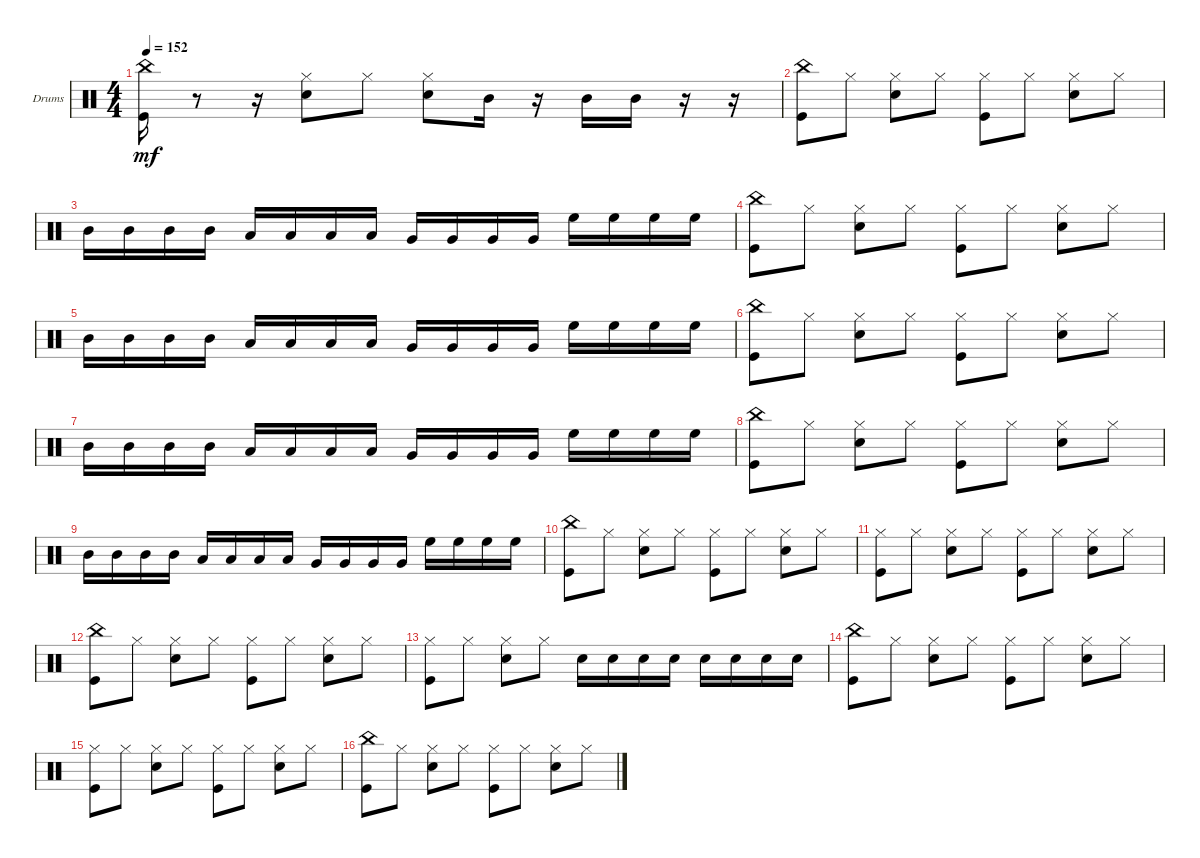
\defaultSystemsLayout 4
\bracketExtendMode groupsimilarinstruments
\firstSystemTrackNameOrientation horizontal
\otherSystemsTrackNameOrientation horizontal
\track ("Drumkit" "Drums") {instrument percussion}
\staff {score}
\articulation defaults
\ts (4 4)
\tempo 152
\clef neutral
\ks c
("Kick (hit)" "China (hit)").16{dy mf} r.8 r.16 ("Snare (hit) 2" "Hi-Hat (closed)").8 "Hi-Hat (closed)".8 ("Hi-Hat (closed)" "Snare (hit) 2").8 "Mid Tom (hit)".16 r.16 "Mid Tom (hit)".16 "Mid Tom (hit)".16 r.16 r.16 |
("China (hit)" "Kick (hit)").8 "Hi-Hat (closed)".8 ("Hi-Hat (closed)" "Snare (hit) 2").8 "Hi-Hat (closed)".8 ("Hi-Hat (closed)" "Kick (hit)").8 "Hi-Hat (closed)".8 ("Hi-Hat (closed)" "Snare (hit) 2").8 "Hi-Hat (closed)".8 |
"Mid Tom (hit)".16 "Mid Tom (hit)".16 "Mid Tom (hit)".16 "Mid Tom (hit)".16 "Low Tom (hit)".16 "Low Tom (hit)".16 "Low Tom (hit)".16 "Low Tom (hit)".16 "Very Low Tom (hit)".16 "Very Low Tom (hit)".16 "Very Low Tom (hit)".16 "Very Low Tom (hit)".16 "High Floor Tom (hit)".16 "High Floor Tom (hit)".16 "High Floor Tom (hit)".16 "High Floor Tom (hit)".16 |
("China (hit)" "Kick (hit)").8 "Hi-Hat (closed)".8 ("Hi-Hat (closed)" "Snare (hit) 2").8 "Hi-Hat (closed)".8 ("Hi-Hat (closed)" "Kick (hit)").8 "Hi-Hat (closed)".8 ("Hi-Hat (closed)" "Snare (hit) 2").8 "Hi-Hat (closed)".8 |
"Mid Tom (hit)".16 "Mid Tom (hit)".16 "Mid Tom (hit)".16 "Mid Tom (hit)".16 "Low Tom (hit)".16 "Low Tom (hit)".16 "Low Tom (hit)".16 "Low Tom (hit)".16 "Very Low Tom (hit)".16 "Very Low Tom (hit)".16 "Very Low Tom (hit)".16 "Very Low Tom (hit)".16 "High Floor Tom (hit)".16 "High Floor Tom (hit)".16 "High Floor Tom (hit)".16 "High Floor Tom (hit)".16 |
("China (hit)" "Kick (hit)").8 "Hi-Hat (closed)".8 ("Hi-Hat (closed)" "Snare (hit) 2").8 "Hi-Hat (closed)".8 ("Hi-Hat (closed)" "Kick (hit)").8 "Hi-Hat (closed)".8 ("Hi-Hat (closed)" "Snare (hit) 2").8 "Hi-Hat (closed)".8 |
"Mid Tom (hit)".16 "Mid Tom (hit)".16 "Mid Tom (hit)".16 "Mid Tom (hit)".16 "Low Tom (hit)".16 "Low Tom (hit)".16 "Low Tom (hit)".16 "Low Tom (hit)".16 "Very Low Tom (hit)".16 "Very Low Tom (hit)".16 "Very Low Tom (hit)".16 "Very Low Tom (hit)".16 "High Floor Tom (hit)".16 "High Floor Tom (hit)".16 "High Floor Tom (hit)".16 "High Floor Tom (hit)".16 |
("China (hit)" "Kick (hit)").8 "Hi-Hat (closed)".8 ("Hi-Hat (closed)" "Snare (hit) 2").8 "Hi-Hat (closed)".8 ("Hi-Hat (closed)" "Kick (hit)").8 "Hi-Hat (closed)".8 ("Hi-Hat (closed)" "Snare (hit) 2").8 "Hi-Hat (closed)".8 |
"Mid Tom (hit)".16 "Mid Tom (hit)".16 "Mid Tom (hit)".16 "Mid Tom (hit)".16 "Low Tom (hit)".16 "Low Tom (hit)".16 "Low Tom (hit)".16 "Low Tom (hit)".16 "Very Low Tom (hit)".16 "Very Low Tom (hit)".16 "Very Low Tom (hit)".16 "Very Low Tom (hit)".16 "High Floor Tom (hit)".16 "High Floor Tom (hit)".16 "High Floor Tom (hit)".16 "High Floor Tom (hit)".16 |
("China (hit)" "Kick (hit)").8 "Hi-Hat (closed)".8 ("Hi-Hat (closed)" "Snare (hit) 2").8 "Hi-Hat (closed)".8 ("Hi-Hat (closed)" "Kick (hit)").8 "Hi-Hat (closed)".8 ("Hi-Hat (closed)" "Snare (hit) 2").8 "Hi-Hat (closed)".8 |
("Kick (hit)" "Hi-Hat (closed)").8 "Hi-Hat (closed)".8 ("Snare (hit) 2" "Hi-Hat (closed)").8 "Hi-Hat (closed)".8 ("Hi-Hat (closed)" "Kick (hit)").8 "Hi-Hat (closed)".8 ("Hi-Hat (closed)" "Snare (hit) 2").8 "Hi-Hat (closed)".8 |
("China (hit)" "Kick (hit)").8 "Hi-Hat (closed)".8 ("Hi-Hat (closed)" "Snare (hit) 2").8 "Hi-Hat (closed)".8 ("Hi-Hat (closed)" "Kick (hit)").8 "Hi-Hat (closed)".8 ("Hi-Hat (closed)" "Snare (hit) 2").8 "Hi-Hat (closed)".8 |
("Kick (hit)" "Hi-Hat (closed)").8 "Hi-Hat (closed)".8 ("Snare (hit) 2" "Hi-Hat (closed)").8 "Hi-Hat (closed)".8 "Snare (hit) 2".16 "Snare (hit) 2".16 "Snare (hit) 2".16 "Snare (hit) 2".16 "Snare (hit) 2".16 "Snare (hit) 2".16 "Snare (hit) 2".16 "Snare (hit) 2".16 |
("China (hit)" "Kick (hit)").8 "Hi-Hat (closed)".8 ("Hi-Hat (closed)" "Snare (hit) 2").8 "Hi-Hat (closed)".8 ("Hi-Hat (closed)" "Kick (hit)").8 "Hi-Hat (closed)".8 ("Hi-Hat (closed)" "Snare (hit) 2").8 "Hi-Hat (closed)".8 |
("Kick (hit)" "Hi-Hat (closed)").8 "Hi-Hat (closed)".8 ("Snare (hit) 2" "Hi-Hat (closed)").8 "Hi-Hat (closed)".8 ("Hi-Hat (closed)" "Kick (hit)").8 "Hi-Hat (closed)".8 ("Hi-Hat (closed)" "Snare (hit) 2").8 "Hi-Hat (closed)".8 |
("China (hit)" "Kick (hit)").8 "Hi-Hat (closed)".8 ("Hi-Hat (closed)" "Snare (hit) 2").8 "Hi-Hat (closed)".8 ("Hi-Hat (closed)" "Kick (hit)").8 "Hi-Hat (closed)".8 ("Hi-Hat (closed)" "Snare (hit) 2").8 "Hi-Hat (closed)".8
